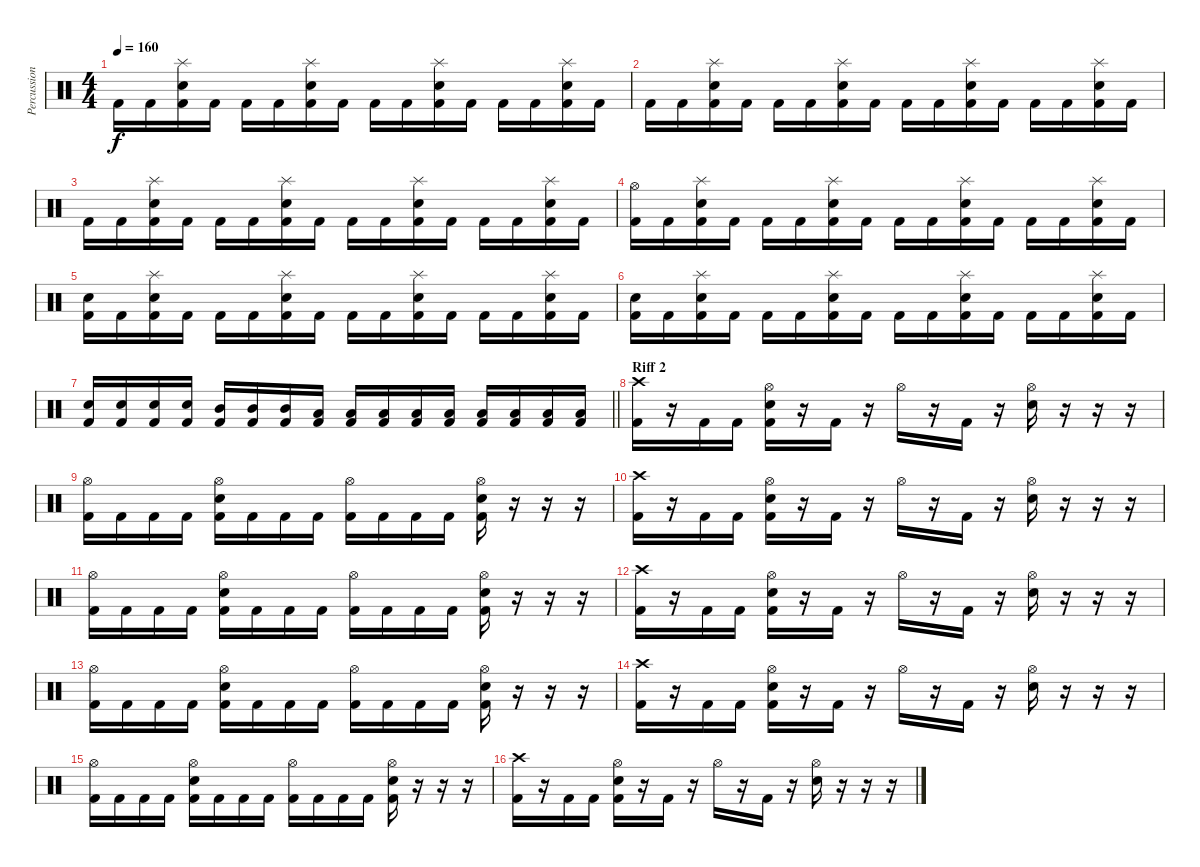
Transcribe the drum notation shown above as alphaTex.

\track ("Percussions" "Percussion") {instrument percussion bank 1}
\staff {score}
\articulation defaults
\ts (4 4)
\tempo 160
\clef neutral
\ks c "Kick (hit) 2".16{dy f} "Kick (hit) 2".16
("Kick (hit) 2" "Electric Snare (hit)" "Splash (hit)").16 "Kick (hit) 2".16 "Kick (hit) 2".16 "Kick (hit) 2".16 ("Kick (hit) 2" "Electric Snare (hit)" "Splash (hit)").16 "Kick (hit) 2".16 "Kick (hit) 2".16 "Kick (hit) 2".16 ("Kick (hit) 2" "Electric Snare (hit)" "Splash (hit)").16 "Kick (hit) 2".16 "Kick (hit) 2".16 "Kick (hit) 2".16 ("Kick (hit) 2" "Electric Snare (hit)" "Splash (hit)").16 "Kick (hit) 2".16 |
"Kick (hit) 2".16 "Kick (hit) 2".16 ("Kick (hit) 2" "Electric Snare (hit)" "Splash (hit)").16 "Kick (hit) 2".16 "Kick (hit) 2".16 "Kick (hit) 2".16 ("Kick (hit) 2" "Electric Snare (hit)" "Splash (hit)").16 "Kick (hit) 2".16 "Kick (hit) 2".16 "Kick (hit) 2".16 ("Kick (hit) 2" "Electric Snare (hit)" "Splash (hit)").16 "Kick (hit) 2".16 "Kick (hit) 2".16 "Kick (hit) 2".16 ("Kick (hit) 2" "Electric Snare (hit)" "Splash (hit)").16 "Kick (hit) 2".16 |
"Kick (hit) 2".16 "Kick (hit) 2".16 ("Kick (hit) 2" "Electric Snare (hit)" "Splash (hit)").16 "Kick (hit) 2".16 "Kick (hit) 2".16 "Kick (hit) 2".16 ("Kick (hit) 2" "Electric Snare (hit)" "Splash (hit)").16 "Kick (hit) 2".16 "Kick (hit) 2".16 "Kick (hit) 2".16 ("Kick (hit) 2" "Electric Snare (hit)" "Splash (hit)").16 "Kick (hit) 2".16 "Kick (hit) 2".16 "Kick (hit) 2".16 ("Kick (hit) 2" "Electric Snare (hit)" "Splash (hit)").16 "Kick (hit) 2".16 |
("Kick (hit) 2" "Hi-Hat (open)").16 "Kick (hit) 2".16 ("Kick (hit) 2" "Electric Snare (hit)" "Splash (hit)").16 "Kick (hit) 2".16 "Kick (hit) 2".16 "Kick (hit) 2".16 ("Kick (hit) 2" "Electric Snare (hit)" "Splash (hit)").16 "Kick (hit) 2".16 "Kick (hit) 2".16 "Kick (hit) 2".16 ("Kick (hit) 2" "Electric Snare (hit)" "Splash (hit)").16 "Kick (hit) 2".16 "Kick (hit) 2".16 "Kick (hit) 2".16 ("Kick (hit) 2" "Electric Snare (hit)" "Splash (hit)").16 "Kick (hit) 2".16 |
("Kick (hit) 2" "Electric Snare (hit)").16 "Kick (hit) 2".16 ("Kick (hit) 2" "Electric Snare (hit)" "Splash (hit)").16 "Kick (hit) 2".16 "Kick (hit) 2".16 "Kick (hit) 2".16 ("Kick (hit) 2" "Electric Snare (hit)" "Splash (hit)").16 "Kick (hit) 2".16 "Kick (hit) 2".16 "Kick (hit) 2".16 ("Kick (hit) 2" "Electric Snare (hit)" "Splash (hit)").16 "Kick (hit) 2".16 "Kick (hit) 2".16 "Kick (hit) 2".16 ("Kick (hit) 2" "Electric Snare (hit)" "Splash (hit)").16 "Kick (hit) 2".16 |
("Kick (hit) 2" "Electric Snare (hit)").16 "Kick (hit) 2".16 ("Kick (hit) 2" "Electric Snare (hit)" "Splash (hit)").16 "Kick (hit) 2".16 "Kick (hit) 2".16 "Kick (hit) 2".16 ("Kick (hit) 2" "Electric Snare (hit)" "Splash (hit)").16 "Kick (hit) 2".16 "Kick (hit) 2".16 "Kick (hit) 2".16 ("Kick (hit) 2" "Electric Snare (hit)" "Splash (hit)").16 "Kick (hit) 2".16 "Kick (hit) 2".16 "Kick (hit) 2".16 ("Kick (hit) 2" "Electric Snare (hit)" "Splash (hit)").16 "Kick (hit) 2".16 |
\barLineRight lightlight
("Kick (hit) 2" "Electric Snare (hit)").16 ("Kick (hit) 2" "Electric Snare (hit)").16 ("Kick (hit) 2" "Electric Snare (hit)").16 ("Kick (hit) 2" "Electric Snare (hit)").16 ("Kick (hit) 2" "Mid Tom (hit)").16 ("Kick (hit) 2" "Mid Tom (hit)").16 ("Kick (hit) 2" "Mid Tom (hit)").16 ("Kick (hit) 2" "Low Tom (hit)").16 ("Kick (hit) 2" "Low Tom (hit)").16 ("Kick (hit) 2" "Low Tom (hit)").16 ("Kick (hit) 2" "Low Tom (hit)").16 ("Kick (hit) 2" "Low Floor Tom (hit)").16 ("Kick (hit) 2" "Low Floor Tom (hit)").16 ("Kick (hit) 2" "Low Floor Tom (hit)").16 ("Kick (hit) 2" "Low Floor Tom (hit)").16 ("Kick (hit) 2" "Low Floor Tom (hit)").16 |
\section ("" "Riff 2")
("Kick (hit) 2" "Crash high (hit)").16 r.16 "Kick (hit) 2".16 "Kick (hit) 2".16 ("Kick (hit) 2" "Electric Snare (hit)" "Hi-Hat (open)").16 r.16 "Kick (hit) 2".16 r.16 "Hi-Hat (open)".16 r.16 "Kick (hit) 2".16 r.16 ("Electric Snare (hit)" "Hi-Hat (open)").16 r.16 r.16 r.16 |
("Kick (hit) 2" "Hi-Hat (open)").16 "Kick (hit) 2".16 "Kick (hit) 2".16 "Kick (hit) 2".16 ("Kick (hit) 2" "Electric Snare (hit)" "Hi-Hat (open)").16 "Kick (hit) 2".16 "Kick (hit) 2".16 "Kick (hit) 2".16 ("Kick (hit) 2" "Hi-Hat (open)").16 "Kick (hit) 2".16 "Kick (hit) 2".16 "Kick (hit) 2".16 ("Kick (hit) 2" "Electric Snare (hit)" "Hi-Hat (open)").16 r.16 r.16 r.16 |
("Kick (hit) 2" "Crash high (hit)").16 r.16 "Kick (hit) 2".16 "Kick (hit) 2".16 ("Kick (hit) 2" "Electric Snare (hit)" "Hi-Hat (open)").16 r.16 "Kick (hit) 2".16 r.16 "Hi-Hat (open)".16 r.16 "Kick (hit) 2".16 r.16 ("Electric Snare (hit)" "Hi-Hat (open)").16 r.16 r.16 r.16 |
("Kick (hit) 2" "Hi-Hat (open)").16 "Kick (hit) 2".16 "Kick (hit) 2".16 "Kick (hit) 2".16 ("Kick (hit) 2" "Electric Snare (hit)" "Hi-Hat (open)").16 "Kick (hit) 2".16 "Kick (hit) 2".16 "Kick (hit) 2".16 ("Kick (hit) 2" "Hi-Hat (open)").16 "Kick (hit) 2".16 "Kick (hit) 2".16 "Kick (hit) 2".16 ("Kick (hit) 2" "Electric Snare (hit)" "Hi-Hat (open)").16 r.16 r.16 r.16 |
("Kick (hit) 2" "Crash high (hit)").16 r.16 "Kick (hit) 2".16 "Kick (hit) 2".16 ("Kick (hit) 2" "Electric Snare (hit)" "Hi-Hat (open)").16 r.16 "Kick (hit) 2".16 r.16 "Hi-Hat (open)".16 r.16 "Kick (hit) 2".16 r.16 ("Electric Snare (hit)" "Hi-Hat (open)").16 r.16 r.16 r.16 |
("Kick (hit) 2" "Hi-Hat (open)").16 "Kick (hit) 2".16 "Kick (hit) 2".16 "Kick (hit) 2".16 ("Kick (hit) 2" "Electric Snare (hit)" "Hi-Hat (open)").16 "Kick (hit) 2".16 "Kick (hit) 2".16 "Kick (hit) 2".16 ("Kick (hit) 2" "Hi-Hat (open)").16 "Kick (hit) 2".16 "Kick (hit) 2".16 "Kick (hit) 2".16 ("Kick (hit) 2" "Electric Snare (hit)" "Hi-Hat (open)").16 r.16 r.16 r.16 |
("Kick (hit) 2" "Crash high (hit)").16 r.16 "Kick (hit) 2".16 "Kick (hit) 2".16 ("Kick (hit) 2" "Electric Snare (hit)" "Hi-Hat (open)").16 r.16 "Kick (hit) 2".16 r.16 "Hi-Hat (open)".16 r.16 "Kick (hit) 2".16 r.16 ("Electric Snare (hit)" "Hi-Hat (open)").16 r.16 r.16 r.16 |
("Kick (hit) 2" "Hi-Hat (open)").16 "Kick (hit) 2".16 "Kick (hit) 2".16 "Kick (hit) 2".16 ("Kick (hit) 2" "Electric Snare (hit)" "Hi-Hat (open)").16 "Kick (hit) 2".16 "Kick (hit) 2".16 "Kick (hit) 2".16 ("Kick (hit) 2" "Hi-Hat (open)").16 "Kick (hit) 2".16 "Kick (hit) 2".16 "Kick (hit) 2".16 ("Kick (hit) 2" "Electric Snare (hit)" "Hi-Hat (open)").16 r.16 r.16 r.16 |
("Kick (hit) 2" "Crash high (hit)").16 r.16 "Kick (hit) 2".16 "Kick (hit) 2".16 ("Kick (hit) 2" "Electric Snare (hit)" "Hi-Hat (open)").16 r.16 "Kick (hit) 2".16 r.16 "Hi-Hat (open)".16 r.16 "Kick (hit) 2".16 r.16 ("Electric Snare (hit)" "Hi-Hat (open)").16 r.16 r.16 r.16
